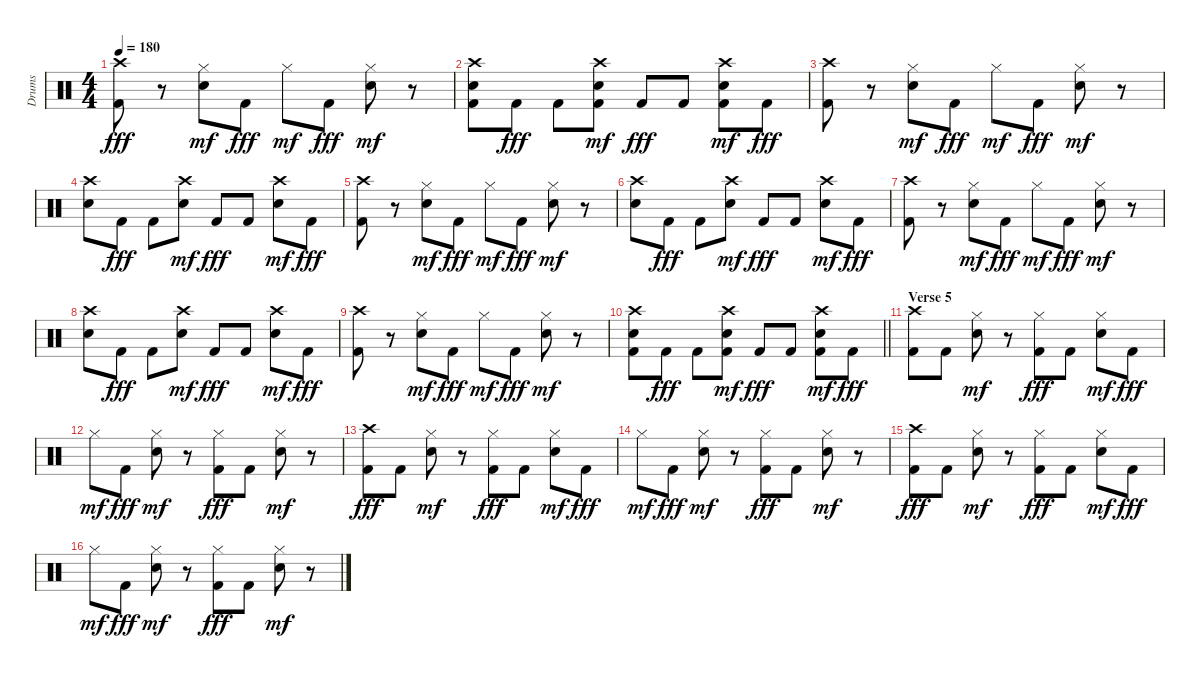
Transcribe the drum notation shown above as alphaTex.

\track ("Drums" "Drums") {instrument percussion}
\staff {score}
\articulation defaults
\ts (4 4)
\tempo 180
\clef neutral
\ks c
("Crash high (hit)" "Kick (hit) 2").8{dy fff} r.8 ("Hi-Hat (closed)" "Electric Snare (hit)").8{dy mf} "Kick (hit) 2".8{dy fff} "Hi-Hat (closed)".8{dy mf} "Kick (hit) 2".8{dy fff} ("Hi-Hat (closed)" "Electric Snare (hit)").8{dy mf} r.8 |
("Kick (hit) 2" "Electric Snare (hit)" "Crash high (hit)").8 "Kick (hit) 2".8{dy fff} "Kick (hit) 2".8 ("Kick (hit) 2" "Electric Snare (hit)" "Crash high (hit)").8{dy mf} "Kick (hit) 2".8{dy fff} "Kick (hit) 2".8 ("Kick (hit) 2" "Electric Snare (hit)" "Crash high (hit)").8{dy mf} "Kick (hit) 2".8{dy fff} |
("Crash high (hit)" "Kick (hit) 2").8 r.8 ("Hi-Hat (closed)" "Electric Snare (hit)").8{dy mf} "Kick (hit) 2".8{dy fff} "Hi-Hat (closed)".8{dy mf} "Kick (hit) 2".8{dy fff} ("Hi-Hat (closed)" "Electric Snare (hit)").8{dy mf} r.8 |
("Crash high (hit)" "Electric Snare (hit)").8 "Kick (hit) 2".8{dy fff} "Kick (hit) 2".8 ("Crash high (hit)" "Electric Snare (hit)").8{dy mf} "Kick (hit) 2".8{dy fff} "Kick (hit) 2".8 ("Crash high (hit)" "Electric Snare (hit)").8{dy mf} "Kick (hit) 2".8{dy fff} |
("Crash high (hit)" "Kick (hit) 2").8 r.8 ("Hi-Hat (closed)" "Electric Snare (hit)").8{dy mf} "Kick (hit) 2".8{dy fff} "Hi-Hat (closed)".8{dy mf} "Kick (hit) 2".8{dy fff} ("Hi-Hat (closed)" "Electric Snare (hit)").8{dy mf} r.8 |
("Crash high (hit)" "Electric Snare (hit)").8 "Kick (hit) 2".8{dy fff} "Kick (hit) 2".8 ("Crash high (hit)" "Electric Snare (hit)").8{dy mf} "Kick (hit) 2".8{dy fff} "Kick (hit) 2".8 ("Crash high (hit)" "Electric Snare (hit)").8{dy mf} "Kick (hit) 2".8{dy fff} |
("Crash high (hit)" "Kick (hit) 2").8 r.8 ("Hi-Hat (closed)" "Electric Snare (hit)").8{dy mf} "Kick (hit) 2".8{dy fff} "Hi-Hat (closed)".8{dy mf} "Kick (hit) 2".8{dy fff} ("Hi-Hat (closed)" "Electric Snare (hit)").8{dy mf} r.8 |
("Crash high (hit)" "Electric Snare (hit)").8 "Kick (hit) 2".8{dy fff} "Kick (hit) 2".8 ("Crash high (hit)" "Electric Snare (hit)").8{dy mf} "Kick (hit) 2".8{dy fff} "Kick (hit) 2".8 ("Crash high (hit)" "Electric Snare (hit)").8{dy mf} "Kick (hit) 2".8{dy fff} |
("Crash high (hit)" "Kick (hit) 2").8 r.8 ("Hi-Hat (closed)" "Electric Snare (hit)").8{dy mf} "Kick (hit) 2".8{dy fff} "Hi-Hat (closed)".8{dy mf} "Kick (hit) 2".8{dy fff} ("Hi-Hat (closed)" "Electric Snare (hit)").8{dy mf} r.8 |
\barLineRight lightlight
("Kick (hit) 2" "Electric Snare (hit)" "Crash high (hit)").8 "Kick (hit) 2".8{dy fff} "Kick (hit) 2".8 ("Kick (hit) 2" "Electric Snare (hit)" "Crash high (hit)").8{dy mf} "Kick (hit) 2".8{dy fff} "Kick (hit) 2".8 ("Kick (hit) 2" "Electric Snare (hit)" "Crash high (hit)").8{dy mf} "Kick (hit) 2".8{dy fff} |
\section ("" "Verse 5")
("Crash high (hit)" "Kick (hit) 2").8 "Kick (hit) 2".8 ("Hi-Hat (closed)" "Electric Snare (hit)").8{dy mf} r.8 ("Hi-Hat (closed)" "Kick (hit) 2").8{dy fff} "Kick (hit) 2".8 ("Hi-Hat (closed)" "Electric Snare (hit)").8{dy mf} "Kick (hit) 2".8{dy fff} |
"Hi-Hat (closed)".8{dy mf} "Kick (hit) 2".8{dy fff} ("Hi-Hat (closed)" "Electric Snare (hit)").8{dy mf} r.8 ("Hi-Hat (closed)" "Kick (hit) 2").8{dy fff} "Kick (hit) 2".8 ("Hi-Hat (closed)" "Electric Snare (hit)").8{dy mf} r.8 |
("Crash high (hit)" "Kick (hit) 2").8{dy fff} "Kick (hit) 2".8 ("Hi-Hat (closed)" "Electric Snare (hit)").8{dy mf} r.8 ("Hi-Hat (closed)" "Kick (hit) 2").8{dy fff} "Kick (hit) 2".8 ("Hi-Hat (closed)" "Electric Snare (hit)").8{dy mf} "Kick (hit) 2".8{dy fff} |
"Hi-Hat (closed)".8{dy mf} "Kick (hit) 2".8{dy fff} ("Hi-Hat (closed)" "Electric Snare (hit)").8{dy mf} r.8 ("Hi-Hat (closed)" "Kick (hit) 2").8{dy fff} "Kick (hit) 2".8 ("Hi-Hat (closed)" "Electric Snare (hit)").8{dy mf} r.8 |
("Crash high (hit)" "Kick (hit) 2").8{dy fff} "Kick (hit) 2".8 ("Hi-Hat (closed)" "Electric Snare (hit)").8{dy mf} r.8 ("Hi-Hat (closed)" "Kick (hit) 2").8{dy fff} "Kick (hit) 2".8 ("Hi-Hat (closed)" "Electric Snare (hit)").8{dy mf} "Kick (hit) 2".8{dy fff} |
"Hi-Hat (closed)".8{dy mf} "Kick (hit) 2".8{dy fff} ("Hi-Hat (closed)" "Electric Snare (hit)").8{dy mf} r.8 ("Hi-Hat (closed)" "Kick (hit) 2").8{dy fff} "Kick (hit) 2".8 ("Hi-Hat (closed)" "Electric Snare (hit)").8{dy mf} r.8
